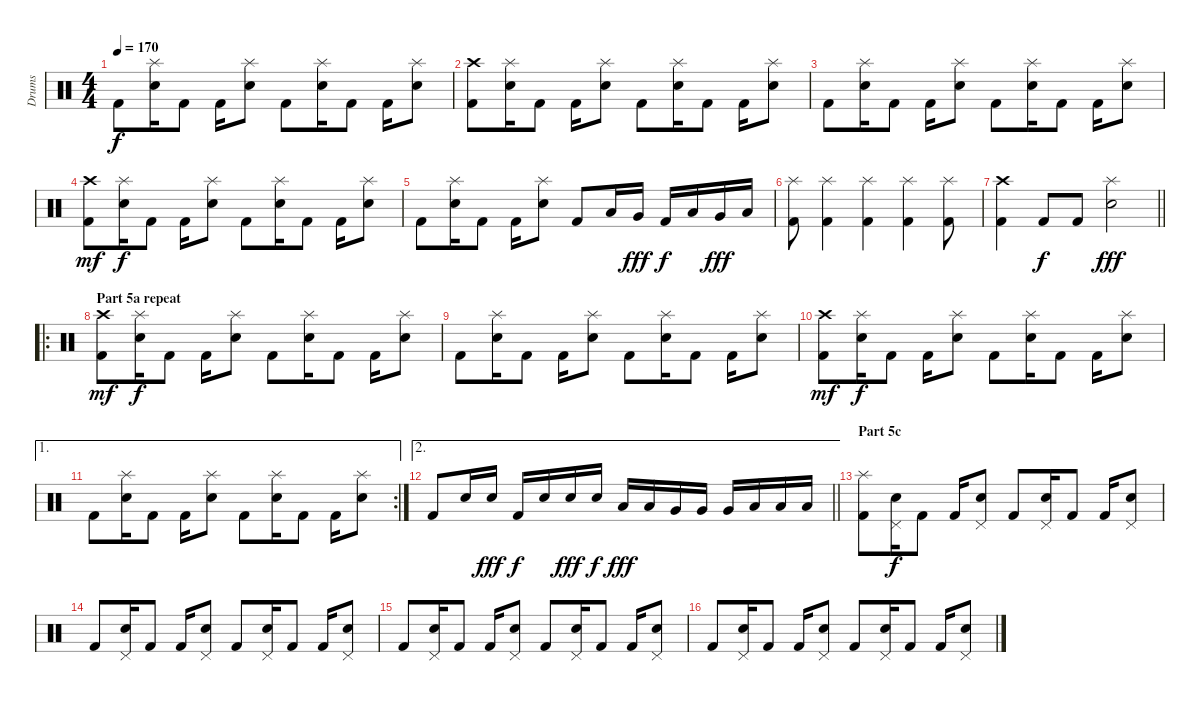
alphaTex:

\track ("Drums" "Drums") {instrument percussion}
\staff {score}
\articulation defaults
\ts (4 4)
\tempo 170
\clef neutral
\ks c "Kick (hit) 2".8{dy f}
("Electric Snare (hit)" "Splash (hit)").16 "Kick (hit) 2".8 "Kick (hit) 2".16 ("Electric Snare (hit)" "Splash (hit)").8 "Kick (hit) 2".8 ("Electric Snare (hit)" "Splash (hit)").16 "Kick (hit) 2".8 "Kick (hit) 2".16 ("Electric Snare (hit)" "Splash (hit)").8 |
("Kick (hit) 2" "Crash high (hit)").8 ("Electric Snare (hit)" "Splash (hit)").16 "Kick (hit) 2".8 "Kick (hit) 2".16 ("Electric Snare (hit)" "Splash (hit)").8 "Kick (hit) 2".8 ("Electric Snare (hit)" "Splash (hit)").16 "Kick (hit) 2".8 "Kick (hit) 2".16 ("Electric Snare (hit)" "Splash (hit)").8 |
"Kick (hit) 2".8 ("Electric Snare (hit)" "Splash (hit)").16 "Kick (hit) 2".8 "Kick (hit) 2".16 ("Electric Snare (hit)" "Splash (hit)").8 "Kick (hit) 2".8 ("Electric Snare (hit)" "Splash (hit)").16 "Kick (hit) 2".8 "Kick (hit) 2".16 ("Electric Snare (hit)" "Splash (hit)").8 |
("Kick (hit) 2" "Crash high (hit)").8{dy mf} ("Electric Snare (hit)" "Splash (hit)").16{dy f} "Kick (hit) 2".8 "Kick (hit) 2".16 ("Electric Snare (hit)" "Splash (hit)").8 "Kick (hit) 2".8 ("Electric Snare (hit)" "Splash (hit)").16 "Kick (hit) 2".8 "Kick (hit) 2".16 ("Electric Snare (hit)" "Splash (hit)").8 |
"Kick (hit) 2".8 ("Electric Snare (hit)" "Splash (hit)").16 "Kick (hit) 2".8 "Kick (hit) 2".16 ("Electric Snare (hit)" "Splash (hit)").8 "Kick (hit) 2".8 "Low Tom (hit)".16 "Very Low Tom (hit)".16{dy fff} "Kick (hit) 2".16{dy f} "Low Tom (hit)".16 "Very Low Tom (hit)".16{dy fff} "Low Floor Tom (hit)".16 |
("Kick (hit) 2" "Splash (hit)").8 ("Kick (hit) 2" "Splash (hit)").4 ("Kick (hit) 2" "Splash (hit)").4 ("Kick (hit) 2" "Splash (hit)").4 ("Kick (hit) 2" "Splash (hit)").8 |
\barLineRight lightlight
("Kick (hit) 2" "Crash high (hit)").4 "Kick (hit) 2".8{dy f} "Kick (hit) 2".8 ("Electric Snare (hit)" "Splash (hit)").2{dy fff} |
\ro
\section ("" "Part 5a repeat")
("Kick (hit) 2" "Crash high (hit)").8{dy mf} ("Electric Snare (hit)" "Splash (hit)").16{dy f} "Kick (hit) 2".8 "Kick (hit) 2".16 ("Electric Snare (hit)" "Splash (hit)").8 "Kick (hit) 2".8 ("Electric Snare (hit)" "Splash (hit)").16 "Kick (hit) 2".8 "Kick (hit) 2".16 ("Electric Snare (hit)" "Splash (hit)").8 |
"Kick (hit) 2".8 ("Electric Snare (hit)" "Splash (hit)").16 "Kick (hit) 2".8 "Kick (hit) 2".16 ("Electric Snare (hit)" "Splash (hit)").8 "Kick (hit) 2".8 ("Electric Snare (hit)" "Splash (hit)").16 "Kick (hit) 2".8 "Kick (hit) 2".16 ("Electric Snare (hit)" "Splash (hit)").8 |
("Kick (hit) 2" "Crash high (hit)").8{dy mf} ("Electric Snare (hit)" "Splash (hit)").16{dy f} "Kick (hit) 2".8 "Kick (hit) 2".16 ("Electric Snare (hit)" "Splash (hit)").8 "Kick (hit) 2".8 ("Electric Snare (hit)" "Splash (hit)").16 "Kick (hit) 2".8 "Kick (hit) 2".16 ("Electric Snare (hit)" "Splash (hit)").8 |
\ae 1
\rc 2 "Kick (hit) 2".8
("Electric Snare (hit)" "Splash (hit)").16 "Kick (hit) 2".8 "Kick (hit) 2".16 ("Electric Snare (hit)" "Splash (hit)").8 "Kick (hit) 2".8 ("Electric Snare (hit)" "Splash (hit)").16 "Kick (hit) 2".8 "Kick (hit) 2".16 ("Electric Snare (hit)" "Splash (hit)").8 |
\ae 2
\barLineRight lightlight "Kick (hit) 2".8 "Electric Snare (hit)".16 "Electric Snare (hit)".16{dy fff} "Kick (hit) 2".16{dy f} "Electric Snare (hit)".16 "Electric Snare (hit)".16{dy fff} "Electric Snare (hit)".16{dy f} "Low Tom (hit)".16{dy fff} "Low Tom (hit)".16 "Very Low Tom (hit)".16 "Very Low Tom (hit)".16 "Very Low Tom (hit)".16 "Low Floor Tom (hit)".16 "Low Floor Tom (hit)".16 "Low Floor Tom (hit)".16
|
\section ("" "Part 5c")
("Kick (hit) 2" "Splash (hit)").8 ("Electric Snare (hit)" "Pedal Hi-Hat (hit)").16{dy f} "Kick (hit) 2".8 "Kick (hit) 2".16 ("Electric Snare (hit)" "Pedal Hi-Hat (hit)").8 "Kick (hit) 2".8 ("Electric Snare (hit)" "Pedal Hi-Hat (hit)").16 "Kick (hit) 2".8 "Kick (hit) 2".16 ("Electric Snare (hit)" "Pedal Hi-Hat (hit)").8 |
"Kick (hit) 2".8 ("Electric Snare (hit)" "Pedal Hi-Hat (hit)").16 "Kick (hit) 2".8 "Kick (hit) 2".16 ("Electric Snare (hit)" "Pedal Hi-Hat (hit)").8 "Kick (hit) 2".8 ("Electric Snare (hit)" "Pedal Hi-Hat (hit)").16 "Kick (hit) 2".8 "Kick (hit) 2".16 ("Electric Snare (hit)" "Pedal Hi-Hat (hit)").8 |
"Kick (hit) 2".8 ("Electric Snare (hit)" "Pedal Hi-Hat (hit)").16 "Kick (hit) 2".8 "Kick (hit) 2".16 ("Electric Snare (hit)" "Pedal Hi-Hat (hit)").8 "Kick (hit) 2".8 ("Electric Snare (hit)" "Pedal Hi-Hat (hit)").16 "Kick (hit) 2".8 "Kick (hit) 2".16 ("Electric Snare (hit)" "Pedal Hi-Hat (hit)").8 |
"Kick (hit) 2".8 ("Electric Snare (hit)" "Pedal Hi-Hat (hit)").16 "Kick (hit) 2".8 "Kick (hit) 2".16 ("Electric Snare (hit)" "Pedal Hi-Hat (hit)").8 "Kick (hit) 2".8 ("Electric Snare (hit)" "Pedal Hi-Hat (hit)").16 "Kick (hit) 2".8 "Kick (hit) 2".16 ("Electric Snare (hit)" "Pedal Hi-Hat (hit)").8
